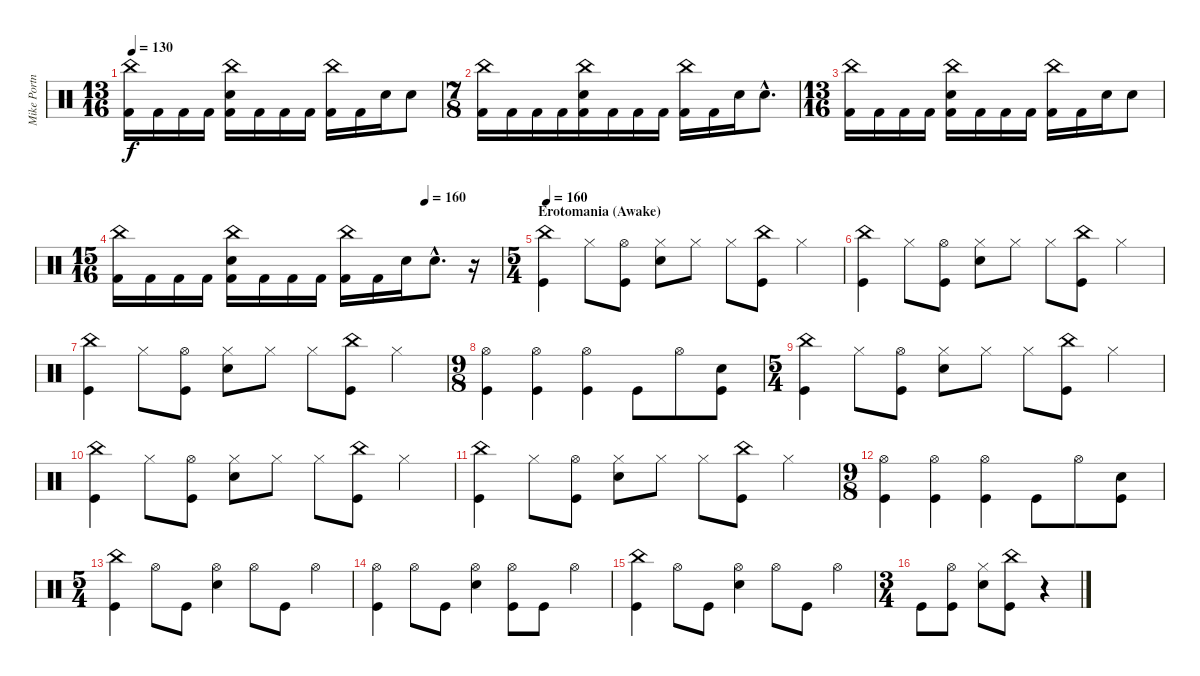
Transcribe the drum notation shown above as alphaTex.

\track ("Mike Portnoy Drums" "Mike Portn") {instrument percussion}
\staff {score}
\articulation defaults
\ts (13 16)
\tempo 130
\clef neutral
\ks c
("China (hit)" "Kick (hit) 2").16{dy f} "Kick (hit) 2".16 "Kick (hit) 2".16 "Kick (hit) 2".16 ("China (hit)" "Electric Snare (hit)" "Kick (hit) 2").16 "Kick (hit) 2".16 "Kick (hit) 2".16 "Kick (hit) 2".16 ("China (hit)" "Kick (hit) 2").16 "Kick (hit) 2".16 "Electric Snare (hit)".16 "Electric Snare (hit)".8 |
\ts (7 8)
("China (hit)" "Kick (hit) 2").16 "Kick (hit) 2".16 "Kick (hit) 2".16 "Kick (hit) 2".16 ("China (hit)" "Electric Snare (hit)" "Kick (hit) 2").16 "Kick (hit) 2".16 "Kick (hit) 2".16 "Kick (hit) 2".16 ("China (hit)" "Kick (hit) 2").16 "Kick (hit) 2".16 "Electric Snare (hit)".16 "Electric Snare (hit)"{hac}.8{d} |
\ts (13 16)
("China (hit)" "Kick (hit) 2").16 "Kick (hit) 2".16 "Kick (hit) 2".16 "Kick (hit) 2".16 ("China (hit)" "Electric Snare (hit)" "Kick (hit) 2").16 "Kick (hit) 2".16 "Kick (hit) 2".16 "Kick (hit) 2".16 ("China (hit)" "Kick (hit) 2").16 "Kick (hit) 2".16 "Electric Snare (hit)".16 "Electric Snare (hit)".8 |
\ts (15 16)
\tempo (160 0.8)
("China (hit)" "Kick (hit) 2").16 "Kick (hit) 2".16 "Kick (hit) 2".16 "Kick (hit) 2".16 ("China (hit)" "Electric Snare (hit)" "Kick (hit) 2").16 "Kick (hit) 2".16 "Kick (hit) 2".16 "Kick (hit) 2".16 ("China (hit)" "Kick (hit) 2").16 "Kick (hit) 2".16 "Electric Snare (hit)".16 "Electric Snare (hit)"{hac}.8{d} r.16 |
\ts (5 4)
\section ("" "Erotomania (Awake)")
\tempo 160
("Kick (hit)" "China (hit)").4 "Hi-Hat (closed)".8 ("Kick (hit)" "Hi-Hat (open)").8 ("Snare (hit) 2" "Hi-Hat (closed)").8 "Hi-Hat (closed)".8 "Hi-Hat (closed)".8 ("Kick (hit)" "China (hit)").8 "Hi-Hat (closed)".4 |
("Kick (hit)" "China (hit)").4 "Hi-Hat (closed)".8 ("Kick (hit)" "Hi-Hat (open)").8 ("Snare (hit) 2" "Hi-Hat (closed)").8 "Hi-Hat (closed)".8 "Hi-Hat (closed)".8 ("Kick (hit)" "China (hit)").8 "Hi-Hat (closed)".4 |
("Kick (hit)" "China (hit)").4 "Hi-Hat (closed)".8 ("Kick (hit)" "Hi-Hat (open)").8 ("Snare (hit) 2" "Hi-Hat (closed)").8 "Hi-Hat (closed)".8 "Hi-Hat (closed)".8 ("Kick (hit)" "China (hit)").8 "Hi-Hat (closed)".4 |
\ts (9 8)
("Kick (hit)" "Hi-Hat (open)").4 ("Kick (hit)" "Hi-Hat (open)").4 ("Kick (hit)" "Hi-Hat (open)").4 "Kick (hit)".8 "Hi-Hat (open)".8 ("Kick (hit)" "Snare (hit) 2").8 |
\ts (5 4)
("Kick (hit)" "China (hit)").4 "Hi-Hat (closed)".8 ("Kick (hit)" "Hi-Hat (open)").8 ("Snare (hit) 2" "Hi-Hat (closed)").8 "Hi-Hat (closed)".8 "Hi-Hat (closed)".8 ("Kick (hit)" "China (hit)").8 "Hi-Hat (closed)".4 |
("Kick (hit)" "China (hit)").4 "Hi-Hat (closed)".8 ("Kick (hit)" "Hi-Hat (open)").8 ("Snare (hit) 2" "Hi-Hat (closed)").8 "Hi-Hat (closed)".8 "Hi-Hat (closed)".8 ("Kick (hit)" "China (hit)").8 "Hi-Hat (closed)".4 |
("Kick (hit)" "China (hit)").4 "Hi-Hat (closed)".8 ("Kick (hit)" "Hi-Hat (open)").8 ("Snare (hit) 2" "Hi-Hat (closed)").8 "Hi-Hat (closed)".8 "Hi-Hat (closed)".8 ("Kick (hit)" "China (hit)").8 "Hi-Hat (closed)".4 |
\ts (9 8)
("Kick (hit)" "Hi-Hat (open)").4 ("Kick (hit)" "Hi-Hat (open)").4 ("Kick (hit)" "Hi-Hat (open)").4 "Kick (hit)".8 "Hi-Hat (open)".8 ("Kick (hit)" "Snare (hit) 2").8 |
\ts (5 4)
("Kick (hit)" "China (hit)").4 "Hi-Hat (open)".8 "Kick (hit)".8 ("Snare (hit) 2" "Hi-Hat (open)").4 "Hi-Hat (open)".8 "Kick (hit)".8 "Hi-Hat (open)".4 |
("Kick (hit)" "Hi-Hat (open)").4 "Hi-Hat (open)".8 "Kick (hit)".8 ("Snare (hit) 2" "Hi-Hat (open)").4 ("Kick (hit)" "Hi-Hat (open)").8 "Kick (hit)".8 "Hi-Hat (open)".4 |
("Kick (hit)" "China (hit)").4 "Hi-Hat (open)".8 "Kick (hit)".8 ("Snare (hit) 2" "Hi-Hat (open)").4 "Hi-Hat (open)".8 "Kick (hit)".8 "Hi-Hat (open)".4 |
\ts (3 4)
"Kick (hit)".8 ("Kick (hit)" "Hi-Hat (open)").8 ("Snare (hit) 2" "Hi-Hat (closed)").8 ("Kick (hit)" "China (hit)").8 r.4
